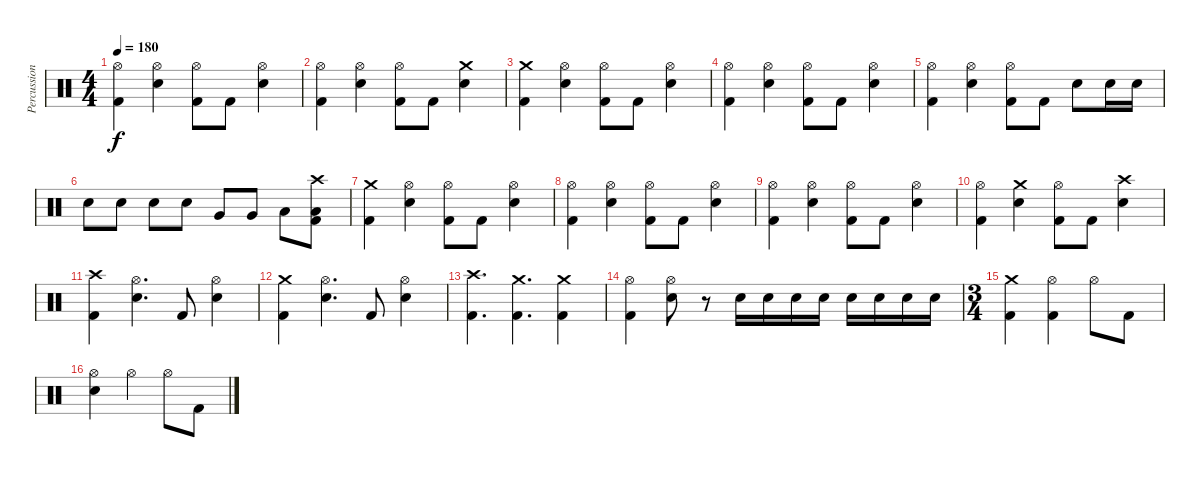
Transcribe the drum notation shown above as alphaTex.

\track ("Percussion" "Percussion") {instrument percussion}
\staff {score}
\articulation defaults
\ts (4 4)
\tempo 180
\clef neutral
\ks c
("Hi-Hat (open)" "Kick (hit) 2").4{dy f} ("Hi-Hat (open)" "Snare (hit) 2").4 ("Hi-Hat (open)" "Kick (hit) 2").8 "Kick (hit) 2".8 ("Hi-Hat (open)" "Snare (hit) 2").4 |
("Hi-Hat (open)" "Kick (hit) 2").4 ("Hi-Hat (open)" "Snare (hit) 2").4 ("Hi-Hat (open)" "Kick (hit) 2").8 "Kick (hit) 2".8 ("Crash medium (hit)" "Snare (hit) 2").4 |
("Crash medium (hit)" "Kick (hit) 2").4 ("Hi-Hat (open)" "Snare (hit) 2").4 ("Hi-Hat (open)" "Kick (hit) 2").8 "Kick (hit) 2".8 ("Hi-Hat (open)" "Snare (hit) 2").4 |
("Hi-Hat (open)" "Kick (hit) 2").4 ("Hi-Hat (open)" "Snare (hit) 2").4 ("Hi-Hat (open)" "Kick (hit) 2").8 "Kick (hit) 2".8 ("Hi-Hat (open)" "Snare (hit) 2").4 |
("Hi-Hat (open)" "Kick (hit) 2").4 ("Hi-Hat (open)" "Snare (hit) 2").4 ("Hi-Hat (open)" "Kick (hit) 2").8 "Kick (hit) 2".8 "Snare (hit) 2".8 "Snare (hit) 2".16 "Snare (hit) 2".16 |
"Snare (hit) 2".8 "Snare (hit) 2".8 "Snare (hit) 2".8 "Snare (hit) 2".8 "Very Low Tom (hit)".8 "Very Low Tom (hit)".8 "Low Floor Tom (hit)".8 ("Crash high (hit)" "Low Floor Tom (hit)" "Kick (hit) 2").8 |
("Crash medium (hit)" "Kick (hit) 2").4 ("Hi-Hat (open)" "Snare (hit) 2").4 ("Hi-Hat (open)" "Kick (hit) 2").8 "Kick (hit) 2".8 ("Hi-Hat (open)" "Snare (hit) 2").4 |
("Hi-Hat (open)" "Kick (hit) 2").4 ("Hi-Hat (open)" "Snare (hit) 2").4 ("Hi-Hat (open)" "Kick (hit) 2").8 "Kick (hit) 2".8 ("Hi-Hat (open)" "Snare (hit) 2").4 |
("Hi-Hat (open)" "Kick (hit) 2").4 ("Hi-Hat (open)" "Snare (hit) 2").4 ("Hi-Hat (open)" "Kick (hit) 2").8 "Kick (hit) 2".8 ("Hi-Hat (open)" "Snare (hit) 2").4 |
("Hi-Hat (open)" "Kick (hit) 2").4 ("Crash medium (hit)" "Snare (hit) 2").4 ("Hi-Hat (open)" "Kick (hit) 2").8 "Kick (hit) 2".8 ("Crash high (hit)" "Snare (hit) 2").4 |
("Crash high (hit)" "Kick (hit) 2").4 ("Hi-Hat (open)" "Snare (hit) 2").4{d} "Kick (hit) 2".8 ("Hi-Hat (open)" "Snare (hit) 2").4 |
("Crash medium (hit)" "Kick (hit) 2").4 ("Hi-Hat (open)" "Snare (hit) 2").4{d} "Kick (hit) 2".8 ("Hi-Hat (open)" "Snare (hit) 2").4 |
("Crash high (hit)" "Kick (hit) 2").4{d} ("Crash medium (hit)" "Kick (hit) 2").4{d} ("Crash medium (hit)" "Kick (hit) 2").4 |
("Hi-Hat (open)" "Kick (hit) 2").4 ("Hi-Hat (open)" "Snare (hit) 2").8 r.8 "Snare (hit) 2".16 "Snare (hit) 2".16 "Snare (hit) 2".16 "Snare (hit) 2".16 "Snare (hit) 2".16 "Snare (hit) 2".16 "Snare (hit) 2".16 "Snare (hit) 2".16 |
\ts (3 4)
("Crash medium (hit)" "Kick (hit) 2").4 ("Hi-Hat (open)" "Kick (hit) 2").4 "Hi-Hat (open)".8 "Kick (hit) 2".8 |
("Hi-Hat (open)" "Snare (hit) 2").4 "Hi-Hat (open)".4 "Hi-Hat (open)".8 "Kick (hit) 2".8
